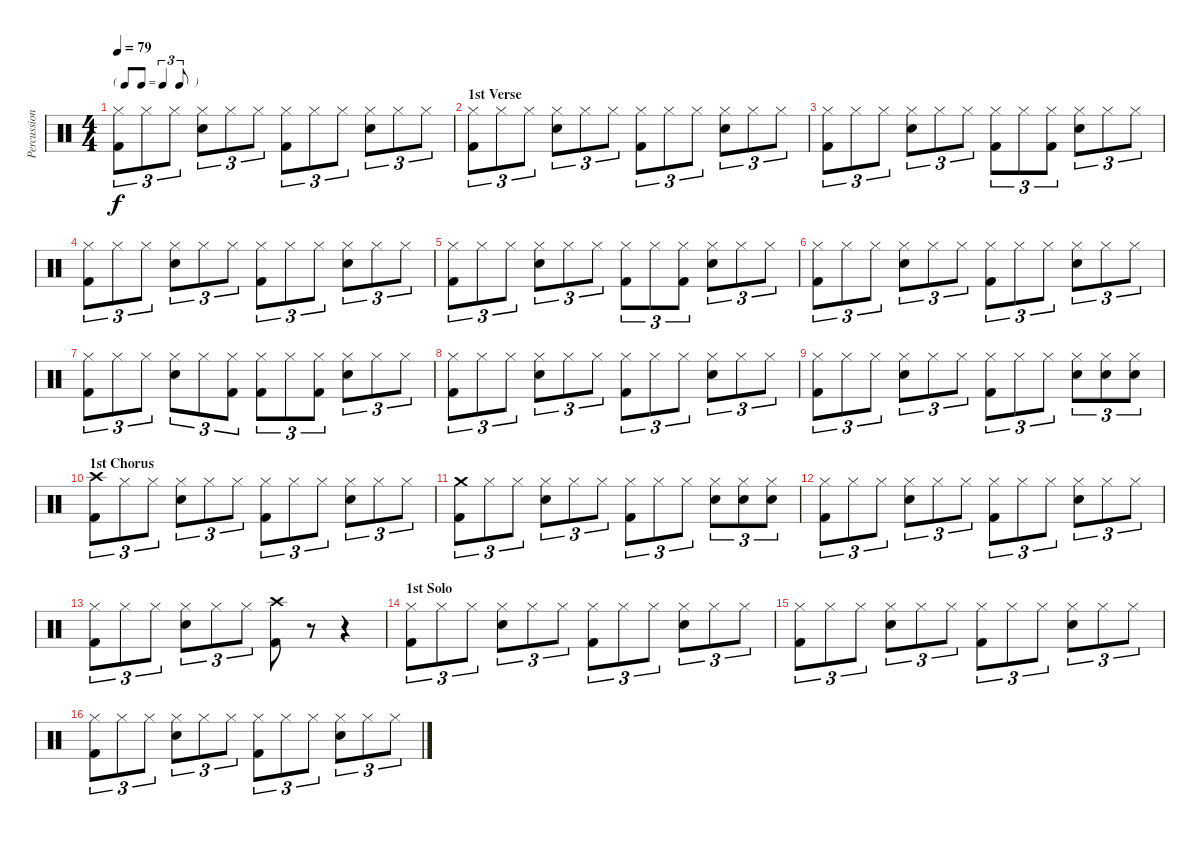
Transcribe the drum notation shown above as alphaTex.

\track ("Percussion" "Percussion") {instrument percussion}
\staff {score}
\articulation defaults
\ts (4 4)
\tf triplet8th
\tempo 79
\clef neutral
\ks c
("Hi-Hat (closed)" "Kick (hit) 2").8{tu (3 2) dy f} "Hi-Hat (closed)".8{tu (3 2)} "Hi-Hat (closed)".8{tu (3 2)} ("Hi-Hat (closed)" "Snare (hit) 2").8{tu (3 2)} "Hi-Hat (closed)".8{tu (3 2)} "Hi-Hat (closed)".8{tu (3 2)} ("Hi-Hat (closed)" "Kick (hit) 2").8{tu (3 2)} "Hi-Hat (closed)".8{tu (3 2)} "Hi-Hat (closed)".8{tu (3 2)} ("Hi-Hat (closed)" "Snare (hit) 2").8{tu (3 2)} "Hi-Hat (closed)".8{tu (3 2)} "Hi-Hat (closed)".8{tu (3 2)} |
\section ("" "1st Verse")
("Hi-Hat (closed)" "Kick (hit) 2").8{tu (3 2)} "Hi-Hat (closed)".8{tu (3 2)} "Hi-Hat (closed)".8{tu (3 2)} ("Hi-Hat (closed)" "Snare (hit) 2").8{tu (3 2)} "Hi-Hat (closed)".8{tu (3 2)} "Hi-Hat (closed)".8{tu (3 2)} ("Hi-Hat (closed)" "Kick (hit) 2").8{tu (3 2)} "Hi-Hat (closed)".8{tu (3 2)} "Hi-Hat (closed)".8{tu (3 2)} ("Hi-Hat (closed)" "Snare (hit) 2").8{tu (3 2)} "Hi-Hat (closed)".8{tu (3 2)} "Hi-Hat (closed)".8{tu (3 2)} |
("Hi-Hat (closed)" "Kick (hit) 2").8{tu (3 2)} "Hi-Hat (closed)".8{tu (3 2)} "Hi-Hat (closed)".8{tu (3 2)} ("Hi-Hat (closed)" "Snare (hit) 2").8{tu (3 2)} "Hi-Hat (closed)".8{tu (3 2)} "Hi-Hat (closed)".8{tu (3 2)} ("Hi-Hat (closed)" "Kick (hit) 2").8{tu (3 2)} "Hi-Hat (closed)".8{tu (3 2)} ("Hi-Hat (closed)" "Kick (hit) 2").8{tu (3 2)} ("Hi-Hat (closed)" "Snare (hit) 2").8{tu (3 2)} "Hi-Hat (closed)".8{tu (3 2)} "Hi-Hat (closed)".8{tu (3 2)} |
("Hi-Hat (closed)" "Kick (hit) 2").8{tu (3 2)} "Hi-Hat (closed)".8{tu (3 2)} "Hi-Hat (closed)".8{tu (3 2)} ("Hi-Hat (closed)" "Snare (hit) 2").8{tu (3 2)} "Hi-Hat (closed)".8{tu (3 2)} "Hi-Hat (closed)".8{tu (3 2)} ("Hi-Hat (closed)" "Kick (hit) 2").8{tu (3 2)} "Hi-Hat (closed)".8{tu (3 2)} "Hi-Hat (closed)".8{tu (3 2)} ("Hi-Hat (closed)" "Snare (hit) 2").8{tu (3 2)} "Hi-Hat (closed)".8{tu (3 2)} "Hi-Hat (closed)".8{tu (3 2)} |
("Hi-Hat (closed)" "Kick (hit) 2").8{tu (3 2)} "Hi-Hat (closed)".8{tu (3 2)} "Hi-Hat (closed)".8{tu (3 2)} ("Hi-Hat (closed)" "Snare (hit) 2").8{tu (3 2)} "Hi-Hat (closed)".8{tu (3 2)} "Hi-Hat (closed)".8{tu (3 2)} ("Hi-Hat (closed)" "Kick (hit) 2").8{tu (3 2)} "Hi-Hat (closed)".8{tu (3 2)} ("Hi-Hat (closed)" "Kick (hit) 2").8{tu (3 2)} ("Hi-Hat (closed)" "Snare (hit) 2").8{tu (3 2)} "Hi-Hat (closed)".8{tu (3 2)} "Hi-Hat (closed)".8{tu (3 2)} |
("Hi-Hat (closed)" "Kick (hit) 2").8{tu (3 2)} "Hi-Hat (closed)".8{tu (3 2)} "Hi-Hat (closed)".8{tu (3 2)} ("Hi-Hat (closed)" "Snare (hit) 2").8{tu (3 2)} "Hi-Hat (closed)".8{tu (3 2)} "Hi-Hat (closed)".8{tu (3 2)} ("Hi-Hat (closed)" "Kick (hit) 2").8{tu (3 2)} "Hi-Hat (closed)".8{tu (3 2)} "Hi-Hat (closed)".8{tu (3 2)} ("Hi-Hat (closed)" "Snare (hit) 2").8{tu (3 2)} "Hi-Hat (closed)".8{tu (3 2)} "Hi-Hat (closed)".8{tu (3 2)} |
("Hi-Hat (closed)" "Kick (hit) 2").8{tu (3 2)} "Hi-Hat (closed)".8{tu (3 2)} "Hi-Hat (closed)".8{tu (3 2)} ("Hi-Hat (closed)" "Snare (hit) 2").8{tu (3 2)} "Hi-Hat (closed)".8{tu (3 2)} ("Hi-Hat (closed)" "Kick (hit) 2").8{tu (3 2)} ("Hi-Hat (closed)" "Kick (hit) 2").8{tu (3 2)} "Hi-Hat (closed)".8{tu (3 2)} ("Hi-Hat (closed)" "Kick (hit) 2").8{tu (3 2)} ("Hi-Hat (closed)" "Snare (hit) 2").8{tu (3 2)} "Hi-Hat (closed)".8{tu (3 2)} "Hi-Hat (closed)".8{tu (3 2)} |
("Hi-Hat (closed)" "Kick (hit) 2").8{tu (3 2)} "Hi-Hat (closed)".8{tu (3 2)} "Hi-Hat (closed)".8{tu (3 2)} ("Hi-Hat (closed)" "Snare (hit) 2").8{tu (3 2)} "Hi-Hat (closed)".8{tu (3 2)} "Hi-Hat (closed)".8{tu (3 2)} ("Hi-Hat (closed)" "Kick (hit) 2").8{tu (3 2)} "Hi-Hat (closed)".8{tu (3 2)} "Hi-Hat (closed)".8{tu (3 2)} ("Hi-Hat (closed)" "Snare (hit) 2").8{tu (3 2)} "Hi-Hat (closed)".8{tu (3 2)} "Hi-Hat (closed)".8{tu (3 2)} |
("Hi-Hat (closed)" "Kick (hit) 2").8{tu (3 2)} "Hi-Hat (closed)".8{tu (3 2)} "Hi-Hat (closed)".8{tu (3 2)} ("Hi-Hat (closed)" "Snare (hit) 2").8{tu (3 2)} "Hi-Hat (closed)".8{tu (3 2)} "Hi-Hat (closed)".8{tu (3 2)} ("Hi-Hat (closed)" "Kick (hit) 2").8{tu (3 2)} "Hi-Hat (closed)".8{tu (3 2)} "Hi-Hat (closed)".8{tu (3 2)} ("Hi-Hat (closed)" "Snare (hit) 2").8{tu (3 2)} ("Hi-Hat (closed)" "Snare (hit) 2").8{tu (3 2)} ("Hi-Hat (closed)" "Snare (hit) 2").8{tu (3 2)} |
\section ("" "1st Chorus")
("Crash high (hit)" "Kick (hit) 2").8{tu (3 2)} "Hi-Hat (closed)".8{tu (3 2)} "Hi-Hat (closed)".8{tu (3 2)} ("Hi-Hat (closed)" "Snare (hit) 2").8{tu (3 2)} "Hi-Hat (closed)".8{tu (3 2)} "Hi-Hat (closed)".8{tu (3 2)} ("Hi-Hat (closed)" "Kick (hit) 2").8{tu (3 2)} "Hi-Hat (closed)".8{tu (3 2)} "Hi-Hat (closed)".8{tu (3 2)} ("Hi-Hat (closed)" "Snare (hit) 2").8{tu (3 2)} "Hi-Hat (closed)".8{tu (3 2)} "Hi-Hat (closed)".8{tu (3 2)} |
("Crash medium (hit)" "Kick (hit) 2").8{tu (3 2)} "Hi-Hat (closed)".8{tu (3 2)} "Hi-Hat (closed)".8{tu (3 2)} ("Hi-Hat (closed)" "Snare (hit) 2").8{tu (3 2)} "Hi-Hat (closed)".8{tu (3 2)} "Hi-Hat (closed)".8{tu (3 2)} ("Hi-Hat (closed)" "Kick (hit) 2").8{tu (3 2)} "Hi-Hat (closed)".8{tu (3 2)} "Hi-Hat (closed)".8{tu (3 2)} ("Hi-Hat (closed)" "Snare (hit) 2").8{tu (3 2)} ("Hi-Hat (closed)" "Snare (hit) 2").8{tu (3 2)} ("Hi-Hat (closed)" "Snare (hit) 2").8{tu (3 2)} |
("Hi-Hat (closed)" "Kick (hit) 2").8{tu (3 2)} "Hi-Hat (closed)".8{tu (3 2)} "Hi-Hat (closed)".8{tu (3 2)} ("Hi-Hat (closed)" "Snare (hit) 2").8{tu (3 2)} "Hi-Hat (closed)".8{tu (3 2)} "Hi-Hat (closed)".8{tu (3 2)} ("Hi-Hat (closed)" "Kick (hit) 2").8{tu (3 2)} "Hi-Hat (closed)".8{tu (3 2)} "Hi-Hat (closed)".8{tu (3 2)} ("Hi-Hat (closed)" "Snare (hit) 2").8{tu (3 2)} "Hi-Hat (closed)".8{tu (3 2)} "Hi-Hat (closed)".8{tu (3 2)} |
("Hi-Hat (closed)" "Kick (hit) 2").8{tu (3 2)} "Hi-Hat (closed)".8{tu (3 2)} "Hi-Hat (closed)".8{tu (3 2)} ("Hi-Hat (closed)" "Snare (hit) 2").8{tu (3 2)} "Hi-Hat (closed)".8{tu (3 2)} "Hi-Hat (closed)".8{tu (3 2)} ("Crash high (hit)" "Kick (hit) 2").8 r.8 r.4 |
\section ("" "1st Solo")
("Hi-Hat (closed)" "Kick (hit) 2").8{tu (3 2)} "Hi-Hat (closed)".8{tu (3 2)} "Hi-Hat (closed)".8{tu (3 2)} ("Hi-Hat (closed)" "Snare (hit) 2").8{tu (3 2)} "Hi-Hat (closed)".8{tu (3 2)} "Hi-Hat (closed)".8{tu (3 2)} ("Hi-Hat (closed)" "Kick (hit) 2").8{tu (3 2)} "Hi-Hat (closed)".8{tu (3 2)} "Hi-Hat (closed)".8{tu (3 2)} ("Hi-Hat (closed)" "Snare (hit) 2").8{tu (3 2)} "Hi-Hat (closed)".8{tu (3 2)} "Hi-Hat (closed)".8{tu (3 2)} |
("Hi-Hat (closed)" "Kick (hit) 2").8{tu (3 2)} "Hi-Hat (closed)".8{tu (3 2)} "Hi-Hat (closed)".8{tu (3 2)} ("Hi-Hat (closed)" "Snare (hit) 2").8{tu (3 2)} "Hi-Hat (closed)".8{tu (3 2)} "Hi-Hat (closed)".8{tu (3 2)} ("Hi-Hat (closed)" "Kick (hit) 2").8{tu (3 2)} "Hi-Hat (closed)".8{tu (3 2)} "Hi-Hat (closed)".8{tu (3 2)} ("Hi-Hat (closed)" "Snare (hit) 2").8{tu (3 2)} "Hi-Hat (closed)".8{tu (3 2)} "Hi-Hat (closed)".8{tu (3 2)} |
("Hi-Hat (closed)" "Kick (hit) 2").8{tu (3 2)} "Hi-Hat (closed)".8{tu (3 2)} "Hi-Hat (closed)".8{tu (3 2)} ("Hi-Hat (closed)" "Snare (hit) 2").8{tu (3 2)} "Hi-Hat (closed)".8{tu (3 2)} "Hi-Hat (closed)".8{tu (3 2)} ("Hi-Hat (closed)" "Kick (hit) 2").8{tu (3 2)} "Hi-Hat (closed)".8{tu (3 2)} "Hi-Hat (closed)".8{tu (3 2)} ("Hi-Hat (closed)" "Snare (hit) 2").8{tu (3 2)} "Hi-Hat (closed)".8{tu (3 2)} "Hi-Hat (closed)".8{tu (3 2)}
